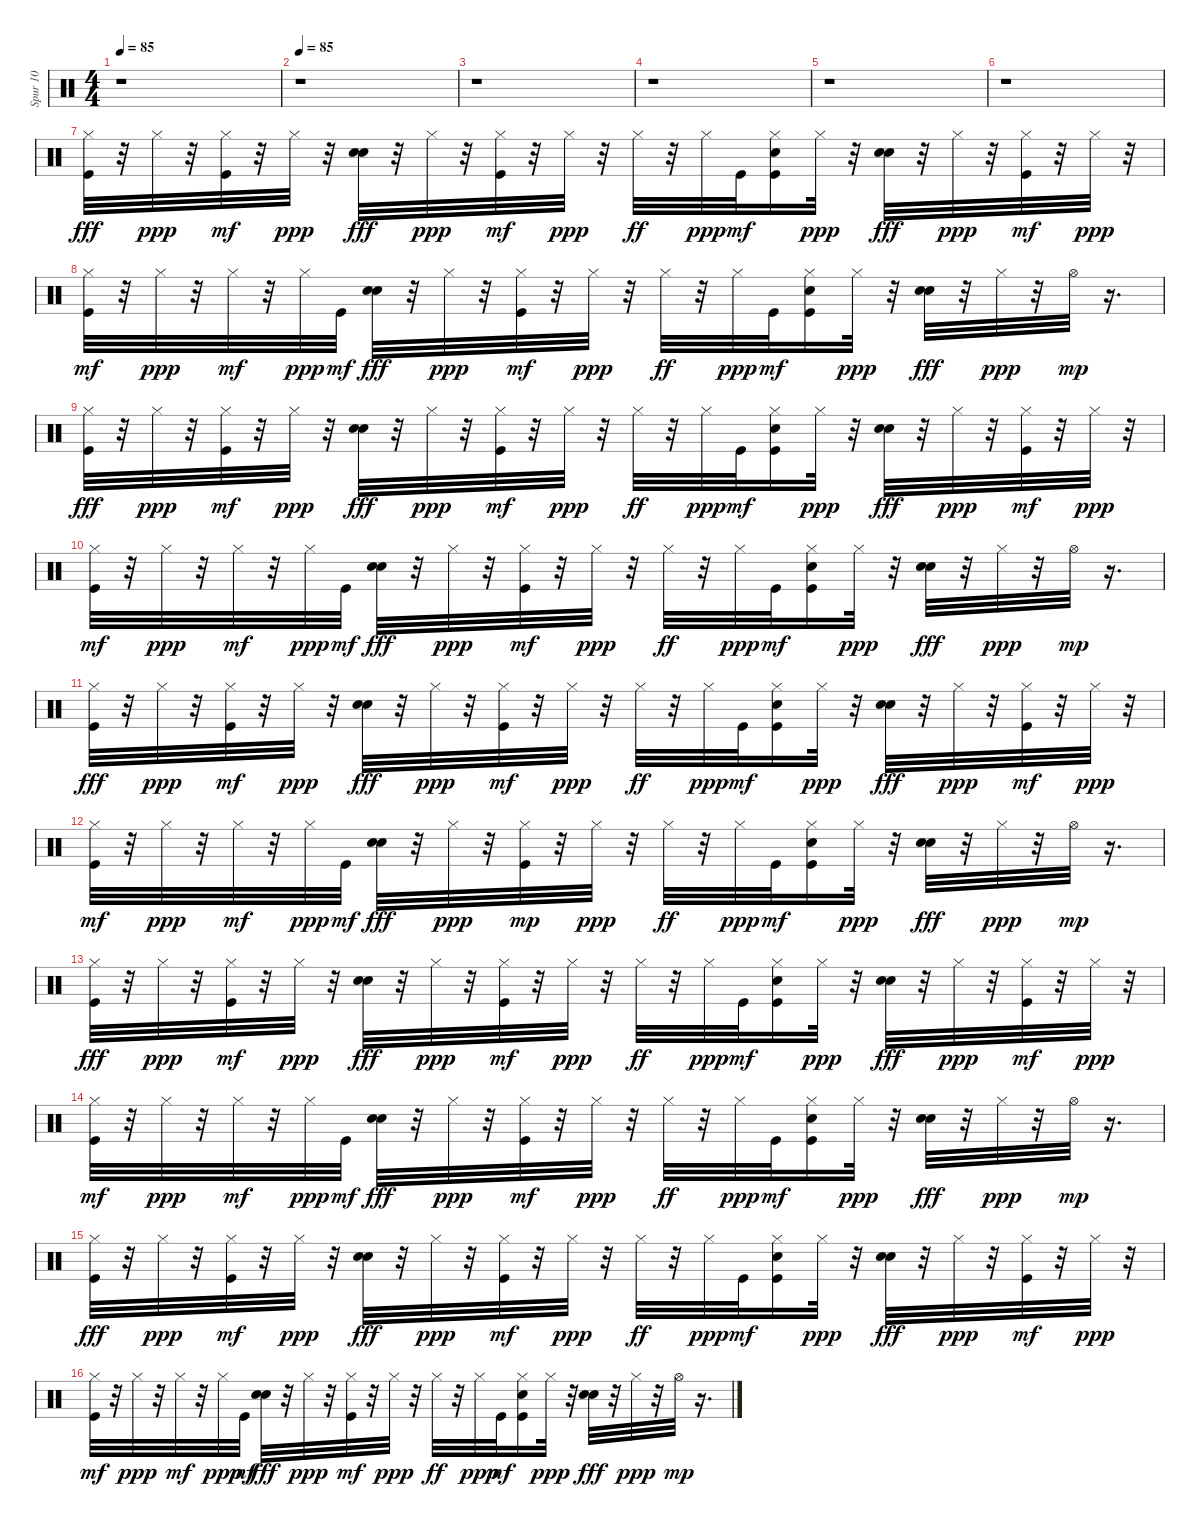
\track ("Spur 10" "Spur 10") {instrument percussion}
\staff {score}
\articulation defaults
\ts (4 4)
\tempo 85
\clef neutral
\ks c
r.1{dy fff} |
\tempo 85
r.1 |
r.1 |
r.1 |
r.1 |
r.1 |
("Kick (hit)" "Hi-Hat (closed)").32 r.32 "Hi-Hat (closed)".32{dy ppp} r.32 ("Hi-Hat (closed)" "Kick (hit)").32{dy mf} r.32 "Hi-Hat (closed)".32{dy ppp} r.32 ("Electric Snare (hit)" "Hand Clap (hit)").32{dy fff} r.32 "Hi-Hat (closed)".32{dy ppp} r.32 ("Hi-Hat (closed)" "Kick (hit)").32{dy mf} r.32 "Hi-Hat (closed)".32{dy ppp} r.32 "Hi-Hat (closed)".32{dy ff} r.32 "Hi-Hat (closed)".32{dy ppp} "Kick (hit)".32{dy mf} ("Snare (hit)" "Hi-Hat (closed)" "Kick (hit)").16 "Hi-Hat (closed)".32{dy ppp} r.32 ("Hand Clap (hit)" "Electric Snare (hit)").32{dy fff} r.32 "Hi-Hat (closed)".32{dy ppp} r.32 ("Hi-Hat (closed)" "Kick (hit)").32{dy mf} r.32 "Hi-Hat (closed)".32{dy ppp} r.32 |
("Hi-Hat (closed)" "Kick (hit)").32{dy mf} r.32 "Hi-Hat (closed)".32{dy ppp} r.32 "Hi-Hat (closed)".32{dy mf} r.32 "Hi-Hat (closed)".32{dy ppp} "Kick (hit)".32{dy mf} ("Electric Snare (hit)" "Hand Clap (hit)").32{dy fff} r.32 "Hi-Hat (closed)".32{dy ppp} r.32 ("Hi-Hat (closed)" "Kick (hit)").32{dy mf} r.32 "Hi-Hat (closed)".32{dy ppp} r.32 "Hi-Hat (closed)".32{dy ff} r.32 "Hi-Hat (closed)".32{dy ppp} "Kick (hit)".32{dy mf} ("Snare (hit)" "Hi-Hat (closed)" "Kick (hit)").16 "Hi-Hat (closed)".32{dy ppp} r.32 ("Electric Snare (hit)" "Hand Clap (hit)").32{dy fff} r.32 "Hi-Hat (closed)".32{dy ppp} r.32 "Hi-Hat (open)".32{dy mp} r.16{d} |
("Kick (hit)" "Hi-Hat (closed)").32{dy fff} r.32 "Hi-Hat (closed)".32{dy ppp} r.32 ("Kick (hit)" "Hi-Hat (closed)").32{dy mf} r.32 "Hi-Hat (closed)".32{dy ppp} r.32 ("Electric Snare (hit)" "Hand Clap (hit)").32{dy fff} r.32 "Hi-Hat (closed)".32{dy ppp} r.32 ("Kick (hit)" "Hi-Hat (closed)").32{dy mf} r.32 "Hi-Hat (closed)".32{dy ppp} r.32 "Hi-Hat (closed)".32{dy ff} r.32 "Hi-Hat (closed)".32{dy ppp} "Kick (hit)".32{dy mf} ("Kick (hit)" "Hi-Hat (closed)" "Snare (hit)").16 "Hi-Hat (closed)".32{dy ppp} r.32 ("Hand Clap (hit)" "Electric Snare (hit)").32{dy fff} r.32 "Hi-Hat (closed)".32{dy ppp} r.32 ("Hi-Hat (closed)" "Kick (hit)").32{dy mf} r.32 "Hi-Hat (closed)".32{dy ppp} r.32 |
("Hi-Hat (closed)" "Kick (hit)").32{dy mf} r.32 "Hi-Hat (closed)".32{dy ppp} r.32 "Hi-Hat (closed)".32{dy mf} r.32 "Hi-Hat (closed)".32{dy ppp} "Kick (hit)".32{dy mf} ("Electric Snare (hit)" "Hand Clap (hit)").32{dy fff} r.32 "Hi-Hat (closed)".32{dy ppp} r.32 ("Hi-Hat (closed)" "Kick (hit)").32{dy mf} r.32 "Hi-Hat (closed)".32{dy ppp} r.32 "Hi-Hat (closed)".32{dy ff} r.32 "Hi-Hat (closed)".32{dy ppp} "Kick (hit)".32{dy mf} ("Snare (hit)" "Hi-Hat (closed)" "Kick (hit)").16 "Hi-Hat (closed)".32{dy ppp} r.32 ("Electric Snare (hit)" "Hand Clap (hit)").32{dy fff} r.32 "Hi-Hat (closed)".32{dy ppp} r.32 "Hi-Hat (open)".32{dy mp} r.16{d} |
("Kick (hit)" "Hi-Hat (closed)").32{dy fff} r.32 "Hi-Hat (closed)".32{dy ppp} r.32 ("Hi-Hat (closed)" "Kick (hit)").32{dy mf} r.32 "Hi-Hat (closed)".32{dy ppp} r.32 ("Electric Snare (hit)" "Hand Clap (hit)").32{dy fff} r.32 "Hi-Hat (closed)".32{dy ppp} r.32 ("Hi-Hat (closed)" "Kick (hit)").32{dy mf} r.32 "Hi-Hat (closed)".32{dy ppp} r.32 "Hi-Hat (closed)".32{dy ff} r.32 "Hi-Hat (closed)".32{dy ppp} "Kick (hit)".32{dy mf} ("Kick (hit)" "Hi-Hat (closed)" "Snare (hit)").16 "Hi-Hat (closed)".32{dy ppp} r.32 ("Hand Clap (hit)" "Electric Snare (hit)").32{dy fff} r.32 "Hi-Hat (closed)".32{dy ppp} r.32 ("Hi-Hat (closed)" "Kick (hit)").32{dy mf} r.32 "Hi-Hat (closed)".32{dy ppp} r.32 |
("Hi-Hat (closed)" "Kick (hit)").32{dy mf} r.32 "Hi-Hat (closed)".32{dy ppp} r.32 "Hi-Hat (closed)".32{dy mf} r.32 "Hi-Hat (closed)".32{dy ppp} "Kick (hit)".32{dy mf} ("Electric Snare (hit)" "Hand Clap (hit)").32{dy fff} r.32 "Hi-Hat (closed)".32{dy ppp} r.32 ("Kick (hit)" "Hi-Hat (closed)").32{dy mp} r.32 "Hi-Hat (closed)".32{dy ppp} r.32 "Hi-Hat (closed)".32{dy ff} r.32 "Hi-Hat (closed)".32{dy ppp} "Kick (hit)".32{dy mf} ("Snare (hit)" "Hi-Hat (closed)" "Kick (hit)").16 "Hi-Hat (closed)".32{dy ppp} r.32 ("Hand Clap (hit)" "Electric Snare (hit)").32{dy fff} r.32 "Hi-Hat (closed)".32{dy ppp} r.32 "Hi-Hat (open)".32{dy mp} r.16{d} |
("Kick (hit)" "Hi-Hat (closed)").32{dy fff} r.32 "Hi-Hat (closed)".32{dy ppp} r.32 ("Hi-Hat (closed)" "Kick (hit)").32{dy mf} r.32 "Hi-Hat (closed)".32{dy ppp} r.32 ("Electric Snare (hit)" "Hand Clap (hit)").32{dy fff} r.32 "Hi-Hat (closed)".32{dy ppp} r.32 ("Hi-Hat (closed)" "Kick (hit)").32{dy mf} r.32 "Hi-Hat (closed)".32{dy ppp} r.32 "Hi-Hat (closed)".32{dy ff} r.32 "Hi-Hat (closed)".32{dy ppp} "Kick (hit)".32{dy mf} ("Kick (hit)" "Hi-Hat (closed)" "Snare (hit)").16 "Hi-Hat (closed)".32{dy ppp} r.32 ("Hand Clap (hit)" "Electric Snare (hit)").32{dy fff} r.32 "Hi-Hat (closed)".32{dy ppp} r.32 ("Hi-Hat (closed)" "Kick (hit)").32{dy mf} r.32 "Hi-Hat (closed)".32{dy ppp} r.32 |
("Hi-Hat (closed)" "Kick (hit)").32{dy mf} r.32 "Hi-Hat (closed)".32{dy ppp} r.32 "Hi-Hat (closed)".32{dy mf} r.32 "Hi-Hat (closed)".32{dy ppp} "Kick (hit)".32{dy mf} ("Electric Snare (hit)" "Hand Clap (hit)").32{dy fff} r.32 "Hi-Hat (closed)".32{dy ppp} r.32 ("Hi-Hat (closed)" "Kick (hit)").32{dy mf} r.32 "Hi-Hat (closed)".32{dy ppp} r.32 "Hi-Hat (closed)".32{dy ff} r.32 "Hi-Hat (closed)".32{dy ppp} "Kick (hit)".32{dy mf} ("Snare (hit)" "Hi-Hat (closed)" "Kick (hit)").16 "Hi-Hat (closed)".32{dy ppp} r.32 ("Electric Snare (hit)" "Hand Clap (hit)").32{dy fff} r.32 "Hi-Hat (closed)".32{dy ppp} r.32 "Hi-Hat (open)".32{dy mp} r.16{d} |
("Kick (hit)" "Hi-Hat (closed)").32{dy fff} r.32 "Hi-Hat (closed)".32{dy ppp} r.32 ("Kick (hit)" "Hi-Hat (closed)").32{dy mf} r.32 "Hi-Hat (closed)".32{dy ppp} r.32 ("Electric Snare (hit)" "Hand Clap (hit)").32{dy fff} r.32 "Hi-Hat (closed)".32{dy ppp} r.32 ("Kick (hit)" "Hi-Hat (closed)").32{dy mf} r.32 "Hi-Hat (closed)".32{dy ppp} r.32 "Hi-Hat (closed)".32{dy ff} r.32 "Hi-Hat (closed)".32{dy ppp} "Kick (hit)".32{dy mf} ("Kick (hit)" "Hi-Hat (closed)" "Snare (hit)").16 "Hi-Hat (closed)".32{dy ppp} r.32 ("Hand Clap (hit)" "Electric Snare (hit)").32{dy fff} r.32 "Hi-Hat (closed)".32{dy ppp} r.32 ("Hi-Hat (closed)" "Kick (hit)").32{dy mf} r.32 "Hi-Hat (closed)".32{dy ppp} r.32 |
("Hi-Hat (closed)" "Kick (hit)").32{dy mf} r.32 "Hi-Hat (closed)".32{dy ppp} r.32 "Hi-Hat (closed)".32{dy mf} r.32 "Hi-Hat (closed)".32{dy ppp} "Kick (hit)".32{dy mf} ("Electric Snare (hit)" "Hand Clap (hit)").32{dy fff} r.32 "Hi-Hat (closed)".32{dy ppp} r.32 ("Hi-Hat (closed)" "Kick (hit)").32{dy mf} r.32 "Hi-Hat (closed)".32{dy ppp} r.32 "Hi-Hat (closed)".32{dy ff} r.32 "Hi-Hat (closed)".32{dy ppp} "Kick (hit)".32{dy mf} ("Snare (hit)" "Hi-Hat (closed)" "Kick (hit)").16 "Hi-Hat (closed)".32{dy ppp} r.32 ("Electric Snare (hit)" "Hand Clap (hit)").32{dy fff} r.32 "Hi-Hat (closed)".32{dy ppp} r.32 "Hi-Hat (open)".32{dy mp} r.16{d}
